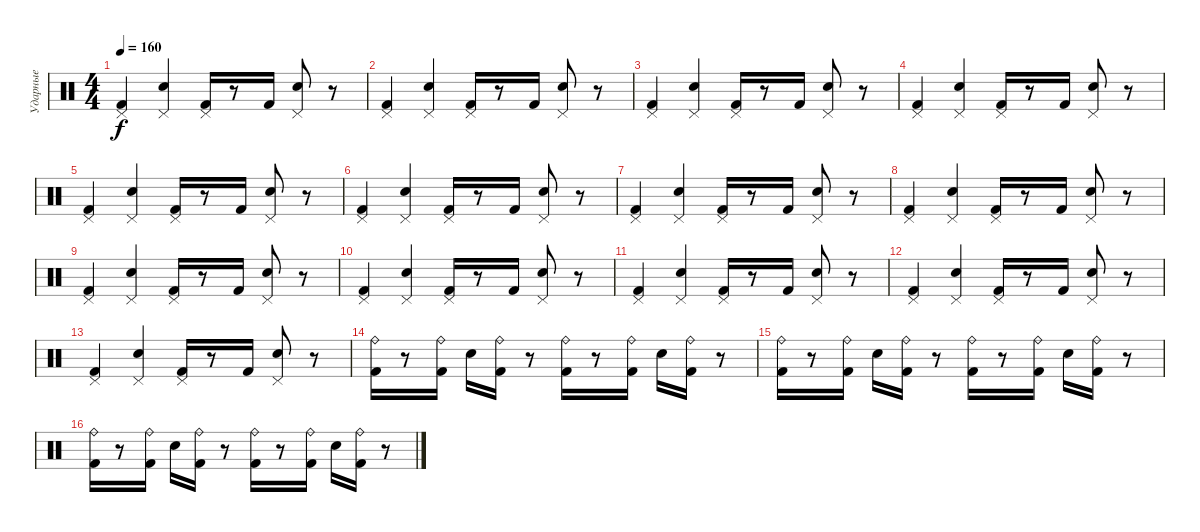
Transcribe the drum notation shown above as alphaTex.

\track ("Ударные" "Ударные") {instrument percussion}
\staff {score}
\articulation defaults
\ts (4 4)
\tempo 160
\clef neutral
\ks c
("Pedal Hi-Hat (hit)" "Kick (hit) 2").4{dy f} ("Pedal Hi-Hat (hit)" "Snare (hit) 2").4 ("Pedal Hi-Hat (hit)" "Kick (hit) 2").16 r.8 "Kick (hit) 2".16 ("Pedal Hi-Hat (hit)" "Snare (hit) 2").8 r.8 |
("Pedal Hi-Hat (hit)" "Kick (hit) 2").4 ("Pedal Hi-Hat (hit)" "Snare (hit) 2").4 ("Pedal Hi-Hat (hit)" "Kick (hit) 2").16 r.8 "Kick (hit) 2".16 ("Pedal Hi-Hat (hit)" "Snare (hit) 2").8 r.8 |
("Pedal Hi-Hat (hit)" "Kick (hit) 2").4 ("Pedal Hi-Hat (hit)" "Snare (hit) 2").4 ("Pedal Hi-Hat (hit)" "Kick (hit) 2").16 r.8 "Kick (hit) 2".16 ("Pedal Hi-Hat (hit)" "Snare (hit) 2").8 r.8 |
("Pedal Hi-Hat (hit)" "Kick (hit) 2").4 ("Pedal Hi-Hat (hit)" "Snare (hit) 2").4 ("Pedal Hi-Hat (hit)" "Kick (hit) 2").16 r.8 "Kick (hit) 2".16 ("Pedal Hi-Hat (hit)" "Snare (hit) 2").8 r.8 |
("Pedal Hi-Hat (hit)" "Kick (hit) 2").4 ("Pedal Hi-Hat (hit)" "Snare (hit) 2").4 ("Pedal Hi-Hat (hit)" "Kick (hit) 2").16 r.8 "Kick (hit) 2".16 ("Pedal Hi-Hat (hit)" "Snare (hit) 2").8 r.8 |
("Pedal Hi-Hat (hit)" "Kick (hit) 2").4 ("Pedal Hi-Hat (hit)" "Snare (hit) 2").4 ("Pedal Hi-Hat (hit)" "Kick (hit) 2").16 r.8 "Kick (hit) 2".16 ("Pedal Hi-Hat (hit)" "Snare (hit) 2").8 r.8 |
("Pedal Hi-Hat (hit)" "Kick (hit) 2").4 ("Pedal Hi-Hat (hit)" "Snare (hit) 2").4 ("Pedal Hi-Hat (hit)" "Kick (hit) 2").16 r.8 "Kick (hit) 2".16 ("Pedal Hi-Hat (hit)" "Snare (hit) 2").8 r.8 |
("Pedal Hi-Hat (hit)" "Kick (hit) 2").4 ("Pedal Hi-Hat (hit)" "Snare (hit) 2").4 ("Pedal Hi-Hat (hit)" "Kick (hit) 2").16 r.8 "Kick (hit) 2".16 ("Pedal Hi-Hat (hit)" "Snare (hit) 2").8 r.8 |
("Pedal Hi-Hat (hit)" "Kick (hit) 2").4 ("Pedal Hi-Hat (hit)" "Snare (hit) 2").4 ("Pedal Hi-Hat (hit)" "Kick (hit) 2").16 r.8 "Kick (hit) 2".16 ("Pedal Hi-Hat (hit)" "Snare (hit) 2").8 r.8 |
("Pedal Hi-Hat (hit)" "Kick (hit) 2").4 ("Pedal Hi-Hat (hit)" "Snare (hit) 2").4 ("Pedal Hi-Hat (hit)" "Kick (hit) 2").16 r.8 "Kick (hit) 2".16 ("Pedal Hi-Hat (hit)" "Snare (hit) 2").8 r.8 |
("Pedal Hi-Hat (hit)" "Kick (hit) 2").4 ("Pedal Hi-Hat (hit)" "Snare (hit) 2").4 ("Pedal Hi-Hat (hit)" "Kick (hit) 2").16 r.8 "Kick (hit) 2".16 ("Pedal Hi-Hat (hit)" "Snare (hit) 2").8 r.8 |
("Pedal Hi-Hat (hit)" "Kick (hit) 2").4 ("Pedal Hi-Hat (hit)" "Snare (hit) 2").4 ("Pedal Hi-Hat (hit)" "Kick (hit) 2").16 r.8 "Kick (hit) 2".16 ("Pedal Hi-Hat (hit)" "Snare (hit) 2").8 r.8 |
("Pedal Hi-Hat (hit)" "Kick (hit) 2").4 ("Pedal Hi-Hat (hit)" "Snare (hit) 2").4 ("Pedal Hi-Hat (hit)" "Kick (hit) 2").16 r.8 "Kick (hit) 2".16 ("Pedal Hi-Hat (hit)" "Snare (hit) 2").8 r.8 |
("Ride (bell)" "Kick (hit) 2").16 r.8 ("Ride (bell)" "Kick (hit) 2").16 "Snare (hit) 2".16 ("Ride (bell)" "Kick (hit) 2").16 r.8 ("Ride (bell)" "Kick (hit) 2").16 r.8 ("Ride (bell)" "Kick (hit) 2").16 "Snare (hit) 2".16 ("Ride (bell)" "Kick (hit) 2").16 r.8 |
("Ride (bell)" "Kick (hit) 2").16 r.8 ("Ride (bell)" "Kick (hit) 2").16 "Snare (hit) 2".16 ("Ride (bell)" "Kick (hit) 2").16 r.8 ("Ride (bell)" "Kick (hit) 2").16 r.8 ("Ride (bell)" "Kick (hit) 2").16 "Snare (hit) 2".16 ("Ride (bell)" "Kick (hit) 2").16 r.8 |
("Ride (bell)" "Kick (hit) 2").16 r.8 ("Ride (bell)" "Kick (hit) 2").16 "Snare (hit) 2".16 ("Ride (bell)" "Kick (hit) 2").16 r.8 ("Ride (bell)" "Kick (hit) 2").16 r.8 ("Ride (bell)" "Kick (hit) 2").16 "Snare (hit) 2".16 ("Ride (bell)" "Kick (hit) 2").16 r.8
